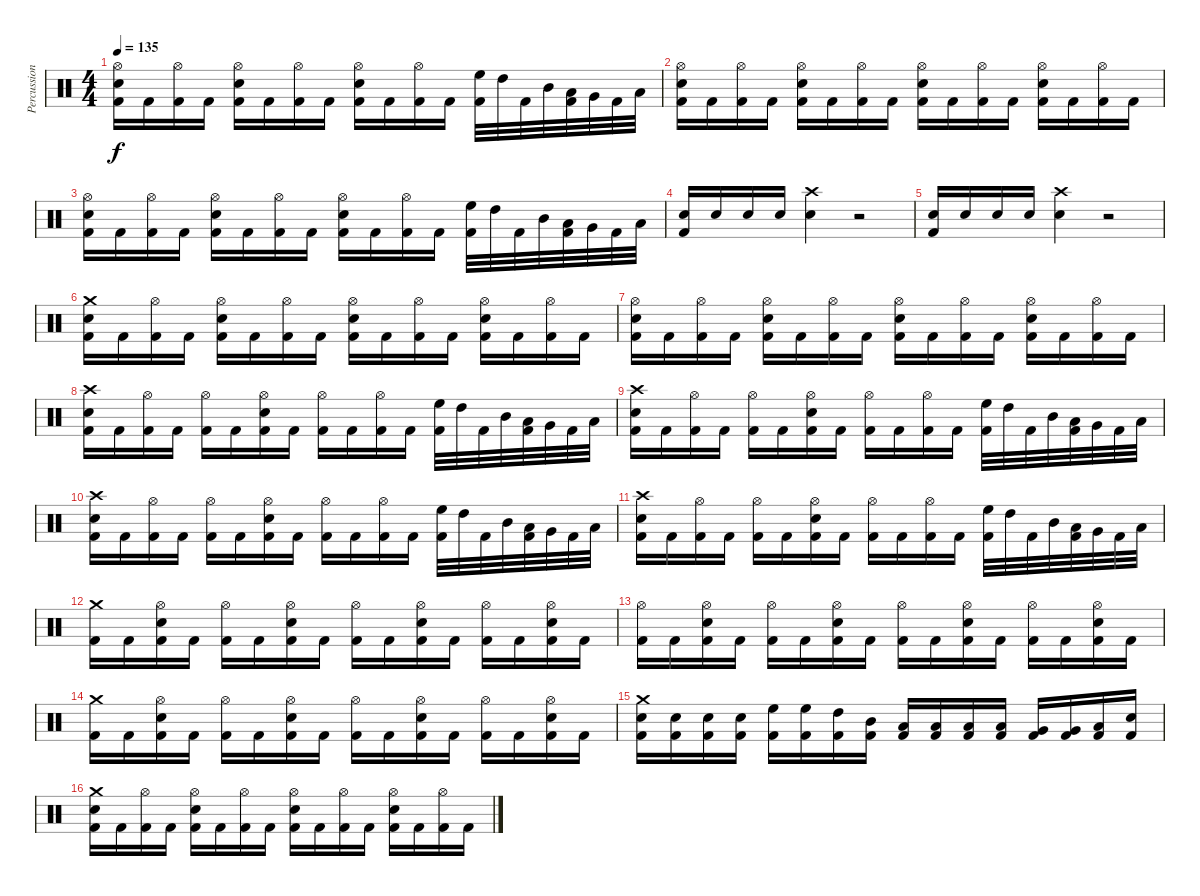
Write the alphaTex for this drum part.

\track ("Percussion" "Percussion") {instrument percussion}
\staff {score}
\articulation defaults
\ts (4 4)
\tempo 135
\clef neutral
\ks c
("Kick (hit) 2" "Electric Snare (hit)" "Hi-Hat (open)").16{dy f} "Kick (hit) 2".16 ("Kick (hit) 2" "Hi-Hat (open)").16 "Kick (hit) 2".16 ("Kick (hit) 2" "Electric Snare (hit)" "Hi-Hat (open)").16 "Kick (hit) 2".16 ("Kick (hit) 2" "Hi-Hat (open)").16 "Kick (hit) 2".16 ("Kick (hit) 2" "Electric Snare (hit)" "Hi-Hat (open)").16 "Kick (hit) 2".16 ("Kick (hit) 2" "Hi-Hat (open)").16 "Kick (hit) 2".16 ("Kick (hit) 2" "High Floor Tom (hit)").32 "High Tom (hit)".32 "Kick (hit) 2".32 "Mid Tom (hit)".32 ("Kick (hit) 2" "Low Tom (hit)").32 "Very Low Tom (hit)".32 "Kick (hit) 2".32 "Low Floor Tom (hit)".32 |
("Kick (hit) 2" "Electric Snare (hit)" "Hi-Hat (open)").16 "Kick (hit) 2".16 ("Kick (hit) 2" "Hi-Hat (open)").16 "Kick (hit) 2".16 ("Kick (hit) 2" "Electric Snare (hit)" "Hi-Hat (open)").16 "Kick (hit) 2".16 ("Kick (hit) 2" "Hi-Hat (open)").16 "Kick (hit) 2".16 ("Kick (hit) 2" "Electric Snare (hit)" "Hi-Hat (open)").16 "Kick (hit) 2".16 ("Kick (hit) 2" "Hi-Hat (open)").16 "Kick (hit) 2".16 ("Kick (hit) 2" "Electric Snare (hit)" "Hi-Hat (open)").16 "Kick (hit) 2".16 ("Kick (hit) 2" "Hi-Hat (open)").16 "Kick (hit) 2".16 |
("Kick (hit) 2" "Electric Snare (hit)" "Hi-Hat (open)").16 "Kick (hit) 2".16 ("Kick (hit) 2" "Hi-Hat (open)").16 "Kick (hit) 2".16 ("Kick (hit) 2" "Electric Snare (hit)" "Hi-Hat (open)").16 "Kick (hit) 2".16 ("Kick (hit) 2" "Hi-Hat (open)").16 "Kick (hit) 2".16 ("Kick (hit) 2" "Electric Snare (hit)" "Hi-Hat (open)").16 "Kick (hit) 2".16 ("Kick (hit) 2" "Hi-Hat (open)").16 "Kick (hit) 2".16 ("Kick (hit) 2" "High Floor Tom (hit)").32 "High Tom (hit)".32 "Kick (hit) 2".32 "Mid Tom (hit)".32 ("Kick (hit) 2" "Low Tom (hit)").32 "Very Low Tom (hit)".32 "Kick (hit) 2".32 "Low Floor Tom (hit)".32 |
("Kick (hit) 2" "Electric Snare (hit)").16 "Electric Snare (hit)".16 "Electric Snare (hit)".16 "Electric Snare (hit)".16 ("Electric Snare (hit)" "Crash high (hit)").4 r.2 |
("Kick (hit) 2" "Electric Snare (hit)").16 "Electric Snare (hit)".16 "Electric Snare (hit)".16 "Electric Snare (hit)".16 ("Electric Snare (hit)" "Crash high (hit)").4 r.2 |
("Kick (hit) 2" "Electric Snare (hit)" "Crash medium (hit)").16 "Kick (hit) 2".16 ("Kick (hit) 2" "Hi-Hat (open)").16 "Kick (hit) 2".16 ("Kick (hit) 2" "Electric Snare (hit)" "Hi-Hat (open)").16 "Kick (hit) 2".16 ("Kick (hit) 2" "Hi-Hat (open)").16 "Kick (hit) 2".16 ("Kick (hit) 2" "Electric Snare (hit)" "Hi-Hat (open)").16 "Kick (hit) 2".16 ("Kick (hit) 2" "Hi-Hat (open)").16 "Kick (hit) 2".16 ("Kick (hit) 2" "Electric Snare (hit)" "Hi-Hat (open)").16 "Kick (hit) 2".16 ("Kick (hit) 2" "Hi-Hat (open)").16 "Kick (hit) 2".16 |
("Kick (hit) 2" "Electric Snare (hit)" "Hi-Hat (open)").16 "Kick (hit) 2".16 ("Kick (hit) 2" "Hi-Hat (open)").16 "Kick (hit) 2".16 ("Kick (hit) 2" "Electric Snare (hit)" "Hi-Hat (open)").16 "Kick (hit) 2".16 ("Kick (hit) 2" "Hi-Hat (open)").16 "Kick (hit) 2".16 ("Kick (hit) 2" "Electric Snare (hit)" "Hi-Hat (open)").16 "Kick (hit) 2".16 ("Kick (hit) 2" "Hi-Hat (open)").16 "Kick (hit) 2".16 ("Kick (hit) 2" "Electric Snare (hit)" "Hi-Hat (open)").16 "Kick (hit) 2".16 ("Kick (hit) 2" "Hi-Hat (open)").16 "Kick (hit) 2".16 |
("Kick (hit) 2" "Electric Snare (hit)" "Crash high (hit)").16 "Kick (hit) 2".16 ("Kick (hit) 2" "Hi-Hat (open)").16 "Kick (hit) 2".16 ("Kick (hit) 2" "Hi-Hat (open)").16 "Kick (hit) 2".16 ("Kick (hit) 2" "Electric Snare (hit)" "Hi-Hat (open)").16 "Kick (hit) 2".16 ("Kick (hit) 2" "Hi-Hat (open)").16 "Kick (hit) 2".16 ("Kick (hit) 2" "Hi-Hat (open)").16 "Kick (hit) 2".16 ("Kick (hit) 2" "High Floor Tom (hit)").32 "High Tom (hit)".32 "Kick (hit) 2".32 "Mid Tom (hit)".32 ("Kick (hit) 2" "Low Tom (hit)").32 "Very Low Tom (hit)".32 "Kick (hit) 2".32 "Low Floor Tom (hit)".32 |
("Kick (hit) 2" "Electric Snare (hit)" "Crash high (hit)").16 "Kick (hit) 2".16 ("Kick (hit) 2" "Hi-Hat (open)").16 "Kick (hit) 2".16 ("Kick (hit) 2" "Hi-Hat (open)").16 "Kick (hit) 2".16 ("Kick (hit) 2" "Electric Snare (hit)" "Hi-Hat (open)").16 "Kick (hit) 2".16 ("Kick (hit) 2" "Hi-Hat (open)").16 "Kick (hit) 2".16 ("Kick (hit) 2" "Hi-Hat (open)").16 "Kick (hit) 2".16 ("Kick (hit) 2" "High Floor Tom (hit)").32 "High Tom (hit)".32 "Kick (hit) 2".32 "Mid Tom (hit)".32 ("Kick (hit) 2" "Low Tom (hit)").32 "Very Low Tom (hit)".32 "Kick (hit) 2".32 "Low Floor Tom (hit)".32 |
("Kick (hit) 2" "Electric Snare (hit)" "Crash high (hit)").16 "Kick (hit) 2".16 ("Kick (hit) 2" "Hi-Hat (open)").16 "Kick (hit) 2".16 ("Kick (hit) 2" "Hi-Hat (open)").16 "Kick (hit) 2".16 ("Kick (hit) 2" "Electric Snare (hit)" "Hi-Hat (open)").16 "Kick (hit) 2".16 ("Kick (hit) 2" "Hi-Hat (open)").16 "Kick (hit) 2".16 ("Kick (hit) 2" "Hi-Hat (open)").16 "Kick (hit) 2".16 ("Kick (hit) 2" "High Floor Tom (hit)").32 "High Tom (hit)".32 "Kick (hit) 2".32 "Mid Tom (hit)".32 ("Kick (hit) 2" "Low Tom (hit)").32 "Very Low Tom (hit)".32 "Kick (hit) 2".32 "Low Floor Tom (hit)".32 |
("Kick (hit) 2" "Electric Snare (hit)" "Crash high (hit)").16 "Kick (hit) 2".16 ("Kick (hit) 2" "Hi-Hat (open)").16 "Kick (hit) 2".16 ("Kick (hit) 2" "Hi-Hat (open)").16 "Kick (hit) 2".16 ("Kick (hit) 2" "Electric Snare (hit)" "Hi-Hat (open)").16 "Kick (hit) 2".16 ("Kick (hit) 2" "Hi-Hat (open)").16 "Kick (hit) 2".16 ("Kick (hit) 2" "Hi-Hat (open)").16 "Kick (hit) 2".16 ("Kick (hit) 2" "High Floor Tom (hit)").32 "High Tom (hit)".32 "Kick (hit) 2".32 "Mid Tom (hit)".32 ("Kick (hit) 2" "Low Tom (hit)").32 "Very Low Tom (hit)".32 "Kick (hit) 2".32 "Low Floor Tom (hit)".32 |
("Kick (hit) 2" "Crash medium (hit)").16 "Kick (hit) 2".16 ("Kick (hit) 2" "Electric Snare (hit)" "Hi-Hat (open)").16 "Kick (hit) 2".16 ("Kick (hit) 2" "Hi-Hat (open)").16 "Kick (hit) 2".16 ("Kick (hit) 2" "Electric Snare (hit)" "Hi-Hat (open)").16 "Kick (hit) 2".16 ("Kick (hit) 2" "Hi-Hat (open)").16 "Kick (hit) 2".16 ("Kick (hit) 2" "Electric Snare (hit)" "Hi-Hat (open)").16 "Kick (hit) 2".16 ("Kick (hit) 2" "Hi-Hat (open)").16 "Kick (hit) 2".16 ("Kick (hit) 2" "Electric Snare (hit)" "Hi-Hat (open)").16 "Kick (hit) 2".16 |
("Kick (hit) 2" "Hi-Hat (open)").16 "Kick (hit) 2".16 ("Kick (hit) 2" "Electric Snare (hit)" "Hi-Hat (open)").16 "Kick (hit) 2".16 ("Kick (hit) 2" "Hi-Hat (open)").16 "Kick (hit) 2".16 ("Kick (hit) 2" "Electric Snare (hit)" "Hi-Hat (open)").16 "Kick (hit) 2".16 ("Kick (hit) 2" "Hi-Hat (open)").16 "Kick (hit) 2".16 ("Kick (hit) 2" "Electric Snare (hit)" "Hi-Hat (open)").16 "Kick (hit) 2".16 ("Kick (hit) 2" "Hi-Hat (open)").16 "Kick (hit) 2".16 ("Kick (hit) 2" "Electric Snare (hit)" "Hi-Hat (open)").16 "Kick (hit) 2".16 |
("Kick (hit) 2" "Crash medium (hit)").16 "Kick (hit) 2".16 ("Kick (hit) 2" "Electric Snare (hit)" "Hi-Hat (open)").16 "Kick (hit) 2".16 ("Kick (hit) 2" "Hi-Hat (open)").16 "Kick (hit) 2".16 ("Kick (hit) 2" "Electric Snare (hit)" "Hi-Hat (open)").16 "Kick (hit) 2".16 ("Kick (hit) 2" "Hi-Hat (open)").16 "Kick (hit) 2".16 ("Kick (hit) 2" "Electric Snare (hit)" "Hi-Hat (open)").16 "Kick (hit) 2".16 ("Kick (hit) 2" "Hi-Hat (open)").16 "Kick (hit) 2".16 ("Kick (hit) 2" "Electric Snare (hit)" "Hi-Hat (open)").16 "Kick (hit) 2".16 |
("Kick (hit) 2" "Electric Snare (hit)" "Crash medium (hit)").16 ("Kick (hit) 2" "Electric Snare (hit)").16 ("Kick (hit) 2" "Electric Snare (hit)").16 ("Kick (hit) 2" "Electric Snare (hit)").16 ("Kick (hit) 2" "High Floor Tom (hit)").16 ("Kick (hit) 2" "High Floor Tom (hit)").16 ("Kick (hit) 2" "High Tom (hit)").16 ("Kick (hit) 2" "Mid Tom (hit)").16 ("Kick (hit) 2" "Low Tom (hit)").16 ("Kick (hit) 2" "Low Tom (hit)").16 ("Kick (hit) 2" "Low Tom (hit)").16 ("Kick (hit) 2" "Low Tom (hit)").16 ("Kick (hit) 2" "Very Low Tom (hit)").16 ("Kick (hit) 2" "Very Low Tom (hit)").16 ("Kick (hit) 2" "Low Floor Tom (hit)").16 ("Kick (hit) 2" "Electric Snare (hit)").16 |
("Kick (hit) 2" "Electric Snare (hit)" "Crash medium (hit)").16 "Kick (hit) 2".16 ("Kick (hit) 2" "Hi-Hat (open)").16 "Kick (hit) 2".16 ("Kick (hit) 2" "Electric Snare (hit)" "Hi-Hat (open)").16 "Kick (hit) 2".16 ("Kick (hit) 2" "Hi-Hat (open)").16 "Kick (hit) 2".16 ("Kick (hit) 2" "Electric Snare (hit)" "Hi-Hat (open)").16 "Kick (hit) 2".16 ("Kick (hit) 2" "Hi-Hat (open)").16 "Kick (hit) 2".16 ("Kick (hit) 2" "Electric Snare (hit)" "Hi-Hat (open)").16 "Kick (hit) 2".16 ("Kick (hit) 2" "Hi-Hat (open)").16 "Kick (hit) 2".16
